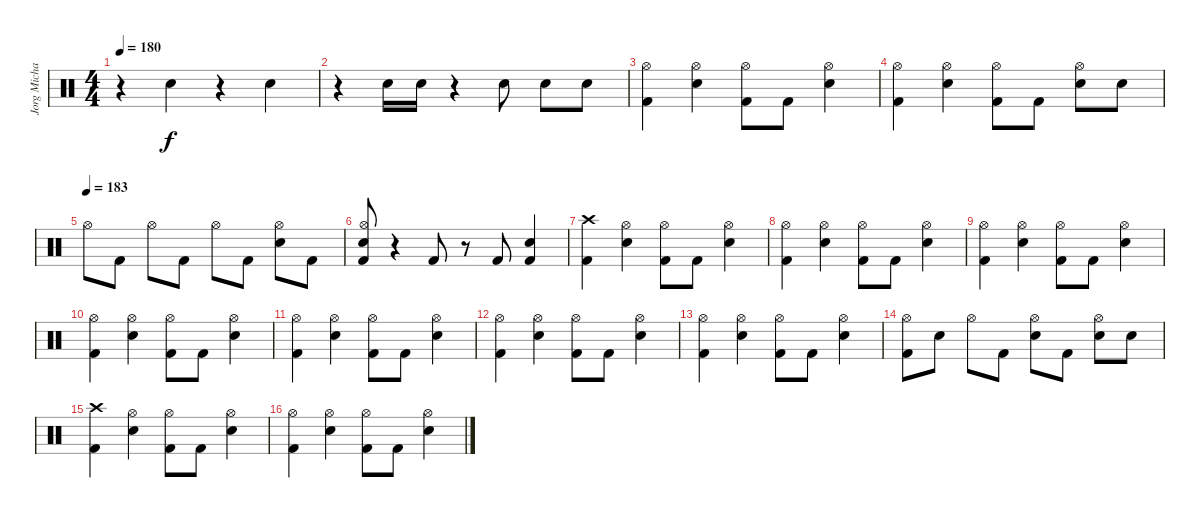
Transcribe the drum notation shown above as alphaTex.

\track ("Jorg Michael" "Jorg Micha") {instrument percussion}
\staff {score}
\articulation defaults
\ts (4 4)
\tempo 180
\clef neutral
\ks c
r.4{dy f} "Snare (hit) 2".4 r.4 "Snare (hit) 2".4 |
r.4 "Snare (hit) 2".16 "Snare (hit) 2".16 r.4 "Snare (hit) 2".8 "Snare (hit) 2".8 "Snare (hit) 2".8 |
("Hi-Hat (open)" "Kick (hit) 2").4 ("Hi-Hat (open)" "Snare (hit) 2").4 ("Hi-Hat (open)" "Kick (hit) 2").8 "Kick (hit) 2".8 ("Hi-Hat (open)" "Snare (hit) 2").4 |
("Hi-Hat (open)" "Kick (hit) 2").4 ("Hi-Hat (open)" "Snare (hit) 2").4 ("Hi-Hat (open)" "Kick (hit) 2").8 "Kick (hit) 2".8 ("Hi-Hat (open)" "Snare (hit) 2").8 "Snare (hit) 2".8 |
\tempo (183)
"Hi-Hat (open)".8 "Kick (hit) 2".8 "Hi-Hat (open)".8 "Kick (hit) 2".8 "Hi-Hat (open)".8 "Kick (hit) 2".8 ("Snare (hit) 2" "Hi-Hat (open)").8 "Kick (hit) 2".8 |
("Kick (hit) 2" "Snare (hit) 2" "Hi-Hat (open)").8 r.4 "Kick (hit) 2".8 r.8 "Kick (hit) 2".8 ("Kick (hit) 2" "Snare (hit) 2").4 |
("Kick (hit) 2" "Crash high (hit)").4 ("Snare (hit) 2" "Hi-Hat (open)").4 ("Kick (hit) 2" "Hi-Hat (open)").8 "Kick (hit) 2".8 ("Snare (hit) 2" "Hi-Hat (open)").4 |
("Kick (hit) 2" "Hi-Hat (open)").4 ("Snare (hit) 2" "Hi-Hat (open)").4 ("Kick (hit) 2" "Hi-Hat (open)").8 "Kick (hit) 2".8 ("Snare (hit) 2" "Hi-Hat (open)").4 |
("Kick (hit) 2" "Hi-Hat (open)").4 ("Snare (hit) 2" "Hi-Hat (open)").4 ("Kick (hit) 2" "Hi-Hat (open)").8 "Kick (hit) 2".8 ("Snare (hit) 2" "Hi-Hat (open)").4 |
("Kick (hit) 2" "Hi-Hat (open)").4 ("Snare (hit) 2" "Hi-Hat (open)").4 ("Kick (hit) 2" "Hi-Hat (open)").8 "Kick (hit) 2".8 ("Snare (hit) 2" "Hi-Hat (open)").4 |
("Kick (hit) 2" "Hi-Hat (open)").4 ("Snare (hit) 2" "Hi-Hat (open)").4 ("Kick (hit) 2" "Hi-Hat (open)").8 "Kick (hit) 2".8 ("Snare (hit) 2" "Hi-Hat (open)").4 |
("Kick (hit) 2" "Hi-Hat (open)").4 ("Snare (hit) 2" "Hi-Hat (open)").4 ("Kick (hit) 2" "Hi-Hat (open)").8 "Kick (hit) 2".8 ("Snare (hit) 2" "Hi-Hat (open)").4 |
("Kick (hit) 2" "Hi-Hat (open)").4 ("Snare (hit) 2" "Hi-Hat (open)").4 ("Kick (hit) 2" "Hi-Hat (open)").8 "Kick (hit) 2".8 ("Snare (hit) 2" "Hi-Hat (open)").4 |
("Kick (hit) 2" "Hi-Hat (open)").8 "Snare (hit) 2".8 "Hi-Hat (open)".8 "Kick (hit) 2".8 ("Snare (hit) 2" "Hi-Hat (open)").8 "Kick (hit) 2".8 ("Snare (hit) 2" "Hi-Hat (open)").8 "Snare (hit) 2".8 |
("Kick (hit) 2" "Crash high (hit)").4 ("Snare (hit) 2" "Hi-Hat (open)").4 ("Kick (hit) 2" "Hi-Hat (open)").8 "Kick (hit) 2".8 ("Snare (hit) 2" "Hi-Hat (open)").4 |
("Kick (hit) 2" "Hi-Hat (open)").4 ("Snare (hit) 2" "Hi-Hat (open)").4 ("Kick (hit) 2" "Hi-Hat (open)").8 "Kick (hit) 2".8 ("Snare (hit) 2" "Hi-Hat (open)").4
